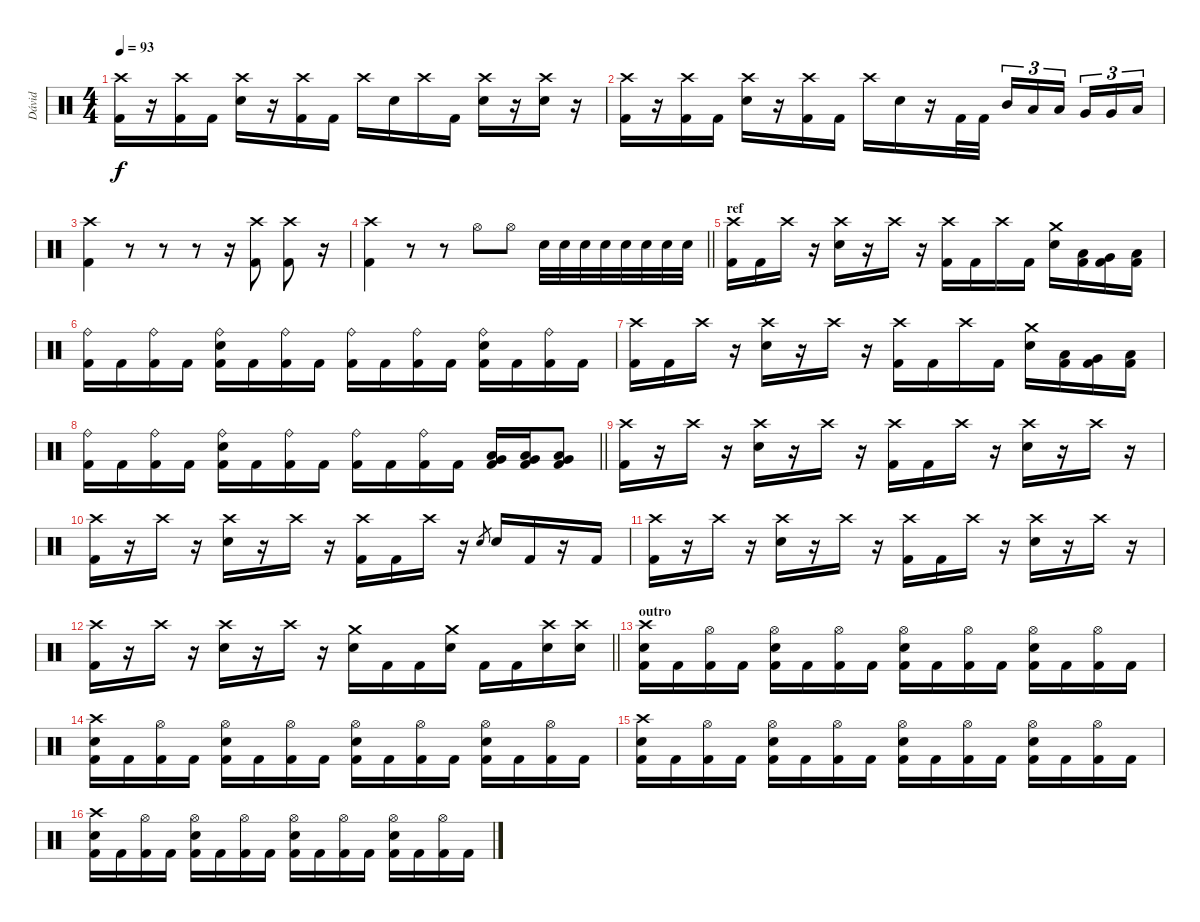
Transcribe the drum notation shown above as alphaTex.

\track ("Dávid" "Dávid") {instrument percussion}
\staff {score}
\articulation defaults
\ts (4 4)
\tempo 93
\clef neutral
\ks c
("Crash high (hit)" "Kick (hit) 2").16{dy f} r.16 ("Crash high (hit)" "Kick (hit) 2").16 "Kick (hit) 2".16 ("Crash high (hit)" "Electric Snare (hit)").16 r.16 ("Crash high (hit)" "Kick (hit) 2").16 "Kick (hit) 2".16 "Crash high (hit)".16 "Electric Snare (hit)".16 "Crash high (hit)".16 "Kick (hit) 2".16 ("Crash high (hit)" "Electric Snare (hit)").16 r.16 ("Crash high (hit)" "Electric Snare (hit)").16 r.16 |
("Crash high (hit)" "Kick (hit) 2").16 r.16 ("Crash high (hit)" "Kick (hit) 2").16 "Kick (hit) 2".16 ("Crash high (hit)" "Electric Snare (hit)").16 r.16 ("Crash high (hit)" "Kick (hit) 2").16 "Kick (hit) 2".16 "Crash high (hit)".16 "Electric Snare (hit)".16 r.16 "Kick (hit) 2".32 "Kick (hit) 2".32 "Mid Tom (hit)".16{tu (3 2)} "Low Tom (hit)".16{tu (3 2)} "Low Tom (hit)".16{tu (3 2)} "Very Low Tom (hit)".16{tu (3 2)} "Very Low Tom (hit)".16{tu (3 2)} "Low Floor Tom (hit)".16{tu (3 2)} |
("Crash high (hit)" "Kick (hit) 2").4 r.8 r.8 r.8 r.16 ("Crash high (hit)" "Kick (hit) 2").8 ("Crash high (hit)" "Kick (hit) 2").8 r.16 |
\barLineRight lightlight
("Crash high (hit)" "Kick (hit) 2").4 r.8 r.8 "Hi-Hat (open)".8 "Hi-Hat (open)".8 "Electric Snare (hit)".32 "Electric Snare (hit)".32 "Electric Snare (hit)".32 "Electric Snare (hit)".32 "Electric Snare (hit)".32 "Electric Snare (hit)".32 "Electric Snare (hit)".32 "Electric Snare (hit)".32 |
\section ("" "ref")
("Crash high (hit)" "Kick (hit) 2").16 "Kick (hit) 2".16 "Crash high (hit)".16 r.16 ("Crash high (hit)" "Electric Snare (hit)").16 r.16 "Crash high (hit)".16 r.16 ("Crash high (hit)" "Kick (hit) 2").16 "Kick (hit) 2".16 "Crash high (hit)".16 "Kick (hit) 2".16 ("Crash medium (hit)" "Electric Snare (hit)").16 ("Kick (hit) 2" "Low Tom (hit)").16 ("Kick (hit) 2" "Very Low Tom (hit)").16 ("Kick (hit) 2" "Low Floor Tom (hit)").16 |
("Ride (bell)" "Kick (hit) 2").16 "Kick (hit) 2".16 ("Ride (bell)" "Kick (hit) 2").16 "Kick (hit) 2".16 ("Ride (bell)" "Electric Snare (hit)" "Kick (hit) 2").16 "Kick (hit) 2".16 ("Ride (bell)" "Kick (hit) 2").16 "Kick (hit) 2".16 ("Ride (bell)" "Kick (hit) 2").16 "Kick (hit) 2".16 ("Ride (bell)" "Kick (hit) 2").16 "Kick (hit) 2".16 ("Ride (bell)" "Electric Snare (hit)" "Kick (hit) 2").16 "Kick (hit) 2".16 ("Ride (bell)" "Kick (hit) 2").16 "Kick (hit) 2".16 |
("Crash high (hit)" "Kick (hit) 2").16 "Kick (hit) 2".16 "Crash high (hit)".16 r.16 ("Crash high (hit)" "Electric Snare (hit)").16 r.16 "Crash high (hit)".16 r.16 ("Crash high (hit)" "Kick (hit) 2").16 "Kick (hit) 2".16 "Crash high (hit)".16 "Kick (hit) 2".16 ("Crash medium (hit)" "Electric Snare (hit)").16 ("Kick (hit) 2" "Low Tom (hit)").16 ("Kick (hit) 2" "Very Low Tom (hit)").16 ("Kick (hit) 2" "Low Floor Tom (hit)").16 |
\barLineRight lightlight
("Ride (bell)" "Kick (hit) 2").16 "Kick (hit) 2".16 ("Ride (bell)" "Kick (hit) 2").16 "Kick (hit) 2".16 ("Ride (bell)" "Electric Snare (hit)" "Kick (hit) 2").16 "Kick (hit) 2".16 ("Ride (bell)" "Kick (hit) 2").16 "Kick (hit) 2".16 ("Ride (bell)" "Kick (hit) 2").16 "Kick (hit) 2".16 ("Ride (bell)" "Kick (hit) 2").16 "Kick (hit) 2".16 ("Very Low Tom (hit)" "Low Floor Tom (hit)" "Kick (hit) 2").16 ("Very Low Tom (hit)" "Low Floor Tom (hit)" "Kick (hit) 2").16 ("Very Low Tom (hit)" "Low Floor Tom (hit)" "Kick (hit) 2").8 |
("Crash high (hit)" "Kick (hit) 2").16 r.16 "Crash high (hit)".16 r.16 ("Crash high (hit)" "Electric Snare (hit)").16 r.16 "Crash high (hit)".16 r.16 ("Crash high (hit)" "Kick (hit) 2").16 "Kick (hit) 2".16 "Crash high (hit)".16 r.16 ("Crash high (hit)" "Electric Snare (hit)").16 r.16 "Crash high (hit)".16 r.16 |
("Crash high (hit)" "Kick (hit) 2").16 r.16 "Crash high (hit)".16 r.16 ("Crash high (hit)" "Electric Snare (hit)").16 r.16 "Crash high (hit)".16 r.16 ("Crash high (hit)" "Kick (hit) 2").16 "Kick (hit) 2".16 "Crash high (hit)".16 r.16 "Electric Snare (hit)".8{gr} "Electric Snare (hit)".16 "Kick (hit) 2".16 r.16 "Kick (hit) 2".16 |
("Crash high (hit)" "Kick (hit) 2").16 r.16 "Crash high (hit)".16 r.16 ("Crash high (hit)" "Electric Snare (hit)").16 r.16 "Crash high (hit)".16 r.16 ("Crash high (hit)" "Kick (hit) 2").16 "Kick (hit) 2".16 "Crash high (hit)".16 r.16 ("Crash high (hit)" "Electric Snare (hit)").16 r.16 "Crash high (hit)".16 r.16 |
\barLineRight lightlight
("Crash high (hit)" "Kick (hit) 2").16 r.16 "Crash high (hit)".16 r.16 ("Crash high (hit)" "Electric Snare (hit)").16 r.16 "Crash high (hit)".16 r.16 ("Crash medium (hit)" "Electric Snare (hit)").16 "Kick (hit) 2".16 "Kick (hit) 2".16 ("Crash medium (hit)" "Electric Snare (hit)").16 "Kick (hit) 2".16 "Kick (hit) 2".16 ("Crash high (hit)" "Electric Snare (hit)").16 ("Crash high (hit)" "Electric Snare (hit)").16 |
\section ("" "outro")
("Crash high (hit)" "Electric Snare (hit)" "Kick (hit) 2").16 "Kick (hit) 2".16 ("Hi-Hat (open)" "Kick (hit) 2").16 "Kick (hit) 2".16 ("Hi-Hat (open)" "Electric Snare (hit)" "Kick (hit) 2").16 "Kick (hit) 2".16 ("Hi-Hat (open)" "Kick (hit) 2").16 "Kick (hit) 2".16 ("Hi-Hat (open)" "Electric Snare (hit)" "Kick (hit) 2").16 "Kick (hit) 2".16 ("Hi-Hat (open)" "Kick (hit) 2").16 "Kick (hit) 2".16 ("Hi-Hat (open)" "Electric Snare (hit)" "Kick (hit) 2").16 "Kick (hit) 2".16 ("Hi-Hat (open)" "Kick (hit) 2").16 "Kick (hit) 2".16 |
("Crash high (hit)" "Electric Snare (hit)" "Kick (hit) 2").16 "Kick (hit) 2".16 ("Hi-Hat (open)" "Kick (hit) 2").16 "Kick (hit) 2".16 ("Hi-Hat (open)" "Electric Snare (hit)" "Kick (hit) 2").16 "Kick (hit) 2".16 ("Hi-Hat (open)" "Kick (hit) 2").16 "Kick (hit) 2".16 ("Hi-Hat (open)" "Electric Snare (hit)" "Kick (hit) 2").16 "Kick (hit) 2".16 ("Hi-Hat (open)" "Kick (hit) 2").16 "Kick (hit) 2".16 ("Hi-Hat (open)" "Electric Snare (hit)" "Kick (hit) 2").16 "Kick (hit) 2".16 ("Hi-Hat (open)" "Kick (hit) 2").16 "Kick (hit) 2".16 |
("Crash high (hit)" "Electric Snare (hit)" "Kick (hit) 2").16 "Kick (hit) 2".16 ("Hi-Hat (open)" "Kick (hit) 2").16 "Kick (hit) 2".16 ("Hi-Hat (open)" "Electric Snare (hit)" "Kick (hit) 2").16 "Kick (hit) 2".16 ("Hi-Hat (open)" "Kick (hit) 2").16 "Kick (hit) 2".16 ("Hi-Hat (open)" "Electric Snare (hit)" "Kick (hit) 2").16 "Kick (hit) 2".16 ("Hi-Hat (open)" "Kick (hit) 2").16 "Kick (hit) 2".16 ("Hi-Hat (open)" "Electric Snare (hit)" "Kick (hit) 2").16 "Kick (hit) 2".16 ("Hi-Hat (open)" "Kick (hit) 2").16 "Kick (hit) 2".16 |
("Crash high (hit)" "Electric Snare (hit)" "Kick (hit) 2").16 "Kick (hit) 2".16 ("Hi-Hat (open)" "Kick (hit) 2").16 "Kick (hit) 2".16 ("Hi-Hat (open)" "Electric Snare (hit)" "Kick (hit) 2").16 "Kick (hit) 2".16 ("Hi-Hat (open)" "Kick (hit) 2").16 "Kick (hit) 2".16 ("Hi-Hat (open)" "Electric Snare (hit)" "Kick (hit) 2").16 "Kick (hit) 2".16 ("Hi-Hat (open)" "Kick (hit) 2").16 "Kick (hit) 2".16 ("Hi-Hat (open)" "Electric Snare (hit)" "Kick (hit) 2").16 "Kick (hit) 2".16 ("Hi-Hat (open)" "Kick (hit) 2").16 "Kick (hit) 2".16
